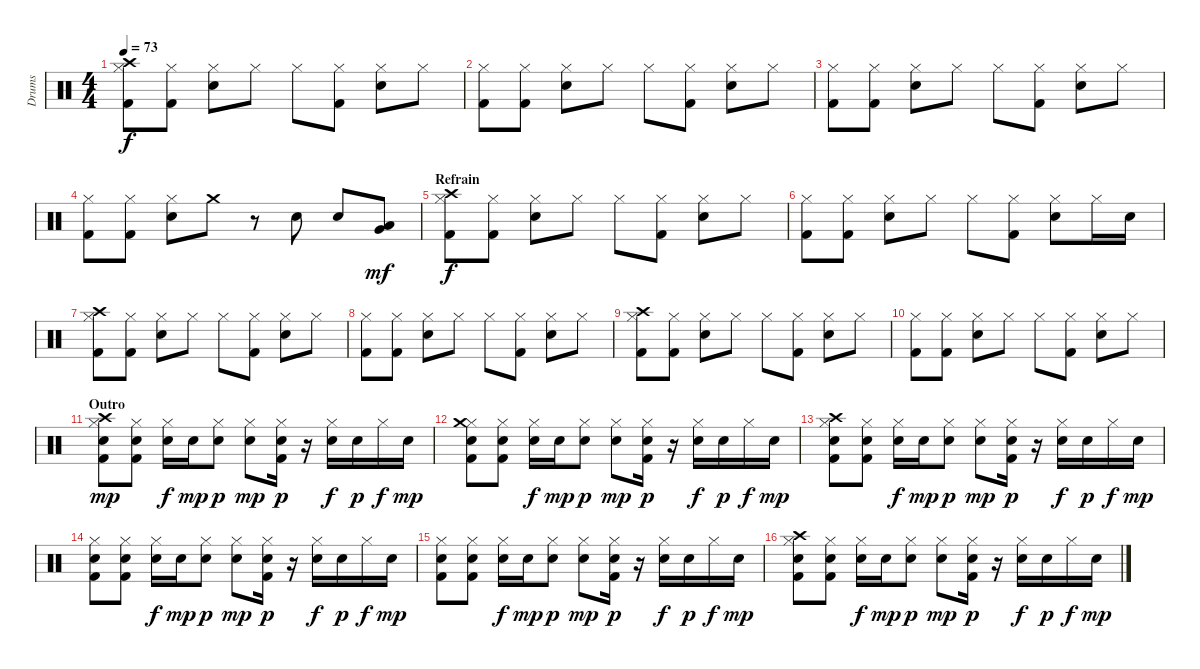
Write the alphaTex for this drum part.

\track ("Drums" "Drums") {instrument percussion}
\staff {score}
\articulation defaults
\ts (4 4)
\tempo 73
\clef neutral
\ks c
("Hi-Hat (closed)" "Crash high (hit)" "Kick (hit) 2").8{dy f} ("Hi-Hat (closed)" "Kick (hit) 2").8 ("Hi-Hat (closed)" "Electric Snare (hit)").8 "Hi-Hat (closed)".8 "Hi-Hat (closed)".8 ("Hi-Hat (closed)" "Kick (hit) 2").8 ("Hi-Hat (closed)" "Electric Snare (hit)").8 "Hi-Hat (closed)".8 |
("Hi-Hat (closed)" "Kick (hit) 2").8 ("Hi-Hat (closed)" "Kick (hit) 2").8 ("Hi-Hat (closed)" "Electric Snare (hit)").8 "Hi-Hat (closed)".8 "Hi-Hat (closed)".8 ("Hi-Hat (closed)" "Kick (hit) 2").8 ("Hi-Hat (closed)" "Electric Snare (hit)").8 "Hi-Hat (closed)".8 |
("Hi-Hat (closed)" "Kick (hit) 2").8 ("Hi-Hat (closed)" "Kick (hit) 2").8 ("Hi-Hat (closed)" "Electric Snare (hit)").8 "Hi-Hat (closed)".8 "Hi-Hat (closed)".8 ("Hi-Hat (closed)" "Kick (hit) 2").8 ("Hi-Hat (closed)" "Electric Snare (hit)").8 "Hi-Hat (closed)".8 |
("Hi-Hat (closed)" "Kick (hit) 2").8 ("Hi-Hat (closed)" "Kick (hit) 2").8 ("Hi-Hat (closed)" "Electric Snare (hit)").8 "Crash medium (hit)".8 r.8 "Electric Snare (hit)".8 "Electric Snare (hit)".8 ("Very Low Tom (hit)" "Low Tom (hit)").8{dy mf} |
\section ("" "Refrain")
("Hi-Hat (closed)" "Crash high (hit)" "Kick (hit) 2").8{dy f} ("Hi-Hat (closed)" "Kick (hit) 2").8 ("Hi-Hat (closed)" "Electric Snare (hit)").8 "Hi-Hat (closed)".8 "Hi-Hat (closed)".8 ("Hi-Hat (closed)" "Kick (hit) 2").8 ("Hi-Hat (closed)" "Electric Snare (hit)").8 "Hi-Hat (closed)".8 |
("Hi-Hat (closed)" "Kick (hit) 2").8 ("Hi-Hat (closed)" "Kick (hit) 2").8 ("Hi-Hat (closed)" "Electric Snare (hit)").8 "Hi-Hat (closed)".8 "Hi-Hat (closed)".8 ("Hi-Hat (closed)" "Kick (hit) 2").8 ("Hi-Hat (closed)" "Electric Snare (hit)").8 "Hi-Hat (closed)".16 "Electric Snare (hit)".16 |
("Hi-Hat (closed)" "Crash high (hit)" "Kick (hit) 2").8 ("Hi-Hat (closed)" "Kick (hit) 2").8 ("Hi-Hat (closed)" "Electric Snare (hit)").8 "Hi-Hat (closed)".8 "Hi-Hat (closed)".8 ("Hi-Hat (closed)" "Kick (hit) 2").8 ("Hi-Hat (closed)" "Electric Snare (hit)").8 "Hi-Hat (closed)".8 |
("Hi-Hat (closed)" "Kick (hit) 2").8 ("Hi-Hat (closed)" "Kick (hit) 2").8 ("Hi-Hat (closed)" "Electric Snare (hit)").8 "Hi-Hat (closed)".8 "Hi-Hat (closed)".8 ("Hi-Hat (closed)" "Kick (hit) 2").8 ("Hi-Hat (closed)" "Electric Snare (hit)").8 "Hi-Hat (closed)".8 |
("Hi-Hat (closed)" "Crash high (hit)" "Kick (hit) 2").8 ("Hi-Hat (closed)" "Kick (hit) 2").8 ("Hi-Hat (closed)" "Electric Snare (hit)").8 "Hi-Hat (closed)".8 "Hi-Hat (closed)".8 ("Hi-Hat (closed)" "Kick (hit) 2").8 ("Hi-Hat (closed)" "Electric Snare (hit)").8 "Hi-Hat (closed)".8 |
("Hi-Hat (closed)" "Kick (hit) 2").8 ("Hi-Hat (closed)" "Kick (hit) 2").8 ("Hi-Hat (closed)" "Electric Snare (hit)").8 "Hi-Hat (closed)".8 "Hi-Hat (closed)".8 ("Hi-Hat (closed)" "Kick (hit) 2").8 ("Hi-Hat (closed)" "Electric Snare (hit)").8 "Hi-Hat (closed)".8 |
\section ("" "Outro")
("Hi-Hat (closed)" "Crash high (hit)" "Electric Snare (hit)" "Kick (hit) 2").8{dy mp} ("Hi-Hat (closed)" "Electric Snare (hit)" "Kick (hit) 2").8 ("Hi-Hat (closed)" "Electric Snare (hit)").16{dy f} "Electric Snare (hit)".16{dy mp} ("Hi-Hat (closed)" "Electric Snare (hit)").8{dy p} ("Hi-Hat (closed)" "Electric Snare (hit)").8{dy mp} ("Hi-Hat (closed)" "Electric Snare (hit)" "Kick (hit) 2").16{dy p} r.16 ("Hi-Hat (closed)" "Electric Snare (hit)").16{dy f} "Electric Snare (hit)".16{dy p} "Hi-Hat (closed)".16{dy f} "Electric Snare (hit)".16{dy mp} |
("Hi-Hat (closed)" "Crash medium (hit)" "Electric Snare (hit)" "Kick (hit) 2").8 ("Hi-Hat (closed)" "Electric Snare (hit)" "Kick (hit) 2").8 ("Hi-Hat (closed)" "Electric Snare (hit)").16{dy f} "Electric Snare (hit)".16{dy mp} ("Hi-Hat (closed)" "Electric Snare (hit)").8{dy p} ("Hi-Hat (closed)" "Electric Snare (hit)").8{dy mp} ("Hi-Hat (closed)" "Electric Snare (hit)" "Kick (hit) 2").16{dy p} r.16 ("Hi-Hat (closed)" "Electric Snare (hit)").16{dy f} "Electric Snare (hit)".16{dy p} "Hi-Hat (closed)".16{dy f} "Electric Snare (hit)".16{dy mp} |
("Hi-Hat (closed)" "Crash high (hit)" "Electric Snare (hit)" "Kick (hit) 2").8 ("Hi-Hat (closed)" "Electric Snare (hit)" "Kick (hit) 2").8 ("Hi-Hat (closed)" "Electric Snare (hit)").16{dy f} "Electric Snare (hit)".16{dy mp} ("Hi-Hat (closed)" "Electric Snare (hit)").8{dy p} ("Hi-Hat (closed)" "Electric Snare (hit)").8{dy mp} ("Hi-Hat (closed)" "Electric Snare (hit)" "Kick (hit) 2").16{dy p} r.16 ("Hi-Hat (closed)" "Electric Snare (hit)").16{dy f} "Electric Snare (hit)".16{dy p} "Hi-Hat (closed)".16{dy f} "Electric Snare (hit)".16{dy mp} |
("Hi-Hat (closed)" "Electric Snare (hit)" "Kick (hit) 2").8 ("Hi-Hat (closed)" "Electric Snare (hit)" "Kick (hit) 2").8 ("Hi-Hat (closed)" "Electric Snare (hit)").16{dy f} "Electric Snare (hit)".16{dy mp} ("Hi-Hat (closed)" "Electric Snare (hit)").8{dy p} ("Hi-Hat (closed)" "Electric Snare (hit)").8{dy mp} ("Hi-Hat (closed)" "Electric Snare (hit)" "Kick (hit) 2").16{dy p} r.16 ("Hi-Hat (closed)" "Electric Snare (hit)").16{dy f} "Electric Snare (hit)".16{dy p} "Hi-Hat (closed)".16{dy f} "Electric Snare (hit)".16{dy mp} |
("Hi-Hat (closed)" "Electric Snare (hit)" "Kick (hit) 2").8 ("Hi-Hat (closed)" "Electric Snare (hit)" "Kick (hit) 2").8 ("Hi-Hat (closed)" "Electric Snare (hit)").16{dy f} "Electric Snare (hit)".16{dy mp} ("Hi-Hat (closed)" "Electric Snare (hit)").8{dy p} ("Hi-Hat (closed)" "Electric Snare (hit)").8{dy mp} ("Hi-Hat (closed)" "Electric Snare (hit)" "Kick (hit) 2").16{dy p} r.16 ("Hi-Hat (closed)" "Electric Snare (hit)").16{dy f} "Electric Snare (hit)".16{dy p} "Hi-Hat (closed)".16{dy f} "Electric Snare (hit)".16{dy mp} |
("Hi-Hat (closed)" "Crash high (hit)" "Electric Snare (hit)" "Kick (hit) 2").8 ("Hi-Hat (closed)" "Electric Snare (hit)" "Kick (hit) 2").8 ("Hi-Hat (closed)" "Electric Snare (hit)").16{dy f} "Electric Snare (hit)".16{dy mp} ("Hi-Hat (closed)" "Electric Snare (hit)").8{dy p} ("Hi-Hat (closed)" "Electric Snare (hit)").8{dy mp} ("Hi-Hat (closed)" "Electric Snare (hit)" "Kick (hit) 2").16{dy p} r.16 ("Hi-Hat (closed)" "Electric Snare (hit)").16{dy f} "Electric Snare (hit)".16{dy p} "Hi-Hat (closed)".16{dy f} "Electric Snare (hit)".16{dy mp}
